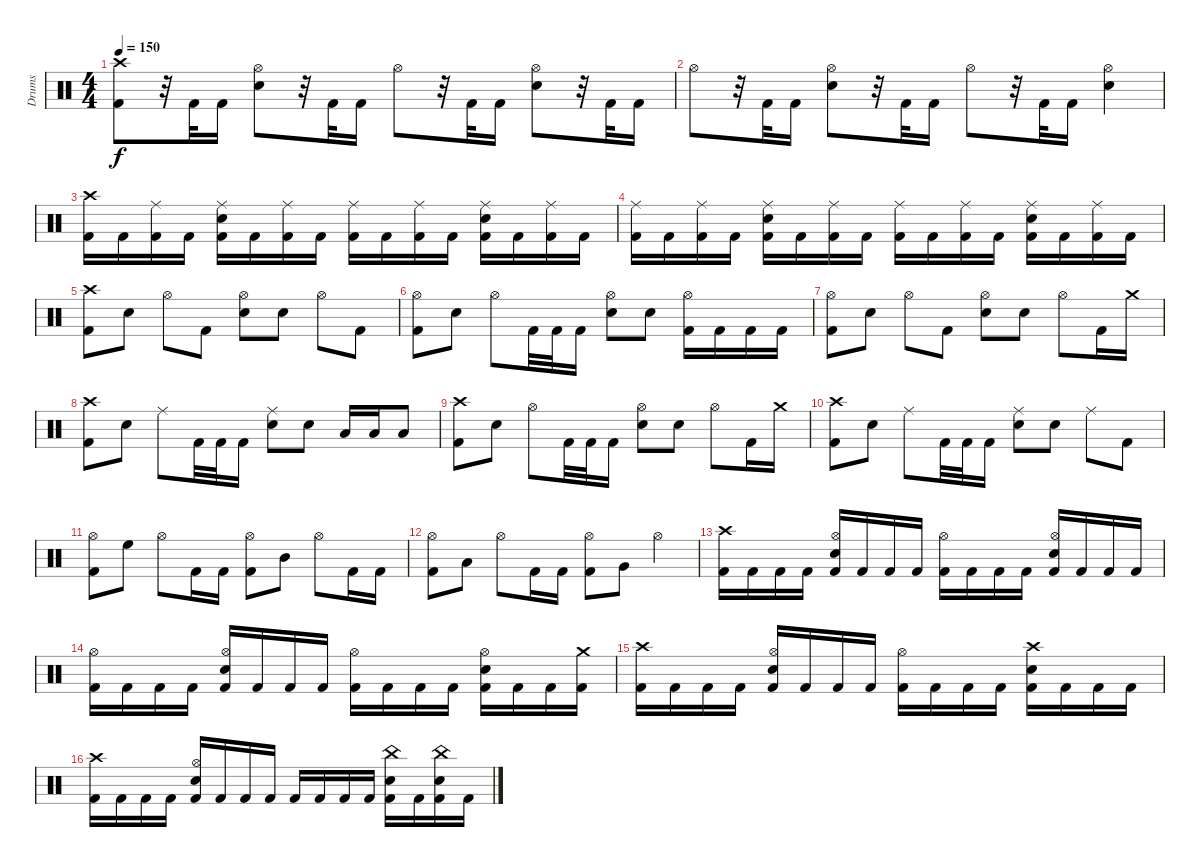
\track ("Drums" "Drums") {instrument percussion}
\staff {score}
\articulation defaults
\ts (4 4)
\tempo 150
\clef neutral
\ks c
("Crash high (hit)" "Kick (hit) 2").8{dy f} r.32 "Kick (hit) 2".32 "Kick (hit) 2".16 ("Hi-Hat (open)" "Snare (hit) 2").8 r.32 "Kick (hit) 2".32 "Kick (hit) 2".16 "Hi-Hat (open)".8 r.32 "Kick (hit) 2".32 "Kick (hit) 2".16 ("Hi-Hat (open)" "Snare (hit) 2").8 r.32 "Kick (hit) 2".32 "Kick (hit) 2".16 |
"Hi-Hat (open)".8 r.32 "Kick (hit) 2".32 "Kick (hit) 2".16 ("Hi-Hat (open)" "Snare (hit) 2").8 r.32 "Kick (hit) 2".32 "Kick (hit) 2".16 "Hi-Hat (open)".8 r.32 "Kick (hit) 2".32 "Kick (hit) 2".16 ("Hi-Hat (open)" "Snare (hit) 2").4 |
("Crash high (hit)" "Kick (hit) 2").16 "Kick (hit) 2".16 ("Ride (middle)" "Kick (hit) 2").16 "Kick (hit) 2".16 ("Ride (middle)" "Snare (hit) 2" "Kick (hit) 2").16 "Kick (hit) 2".16 ("Ride (middle)" "Kick (hit) 2").16 "Kick (hit) 2".16 ("Ride (middle)" "Kick (hit) 2").16 "Kick (hit) 2".16 ("Ride (middle)" "Kick (hit) 2").16 "Kick (hit) 2".16 ("Ride (middle)" "Snare (hit) 2" "Kick (hit) 2").16 "Kick (hit) 2".16 ("Ride (middle)" "Kick (hit) 2").16 "Kick (hit) 2".16 |
("Ride (middle)" "Kick (hit) 2").16 "Kick (hit) 2".16 ("Ride (middle)" "Kick (hit) 2").16 "Kick (hit) 2".16 ("Ride (middle)" "Snare (hit) 2" "Kick (hit) 2").16 "Kick (hit) 2".16 ("Ride (middle)" "Kick (hit) 2").16 "Kick (hit) 2".16 ("Ride (middle)" "Kick (hit) 2").16 "Kick (hit) 2".16 ("Ride (middle)" "Kick (hit) 2").16 "Kick (hit) 2".16 ("Ride (middle)" "Snare (hit) 2" "Kick (hit) 2").16 "Kick (hit) 2".16 ("Ride (middle)" "Kick (hit) 2").16 "Kick (hit) 2".16 |
("Crash high (hit)" "Kick (hit) 2").8 "Snare (hit) 2".8 "Hi-Hat (open)".8 "Kick (hit) 2".8 ("Hi-Hat (open)" "Snare (hit) 2").8 "Snare (hit) 2".8 "Hi-Hat (open)".8 "Kick (hit) 2".8 |
("Hi-Hat (open)" "Kick (hit) 2").8 "Snare (hit) 2".8 "Hi-Hat (open)".8 "Kick (hit) 2".32 "Kick (hit) 2".32 "Kick (hit) 2".16 ("Hi-Hat (open)" "Snare (hit) 2").8 "Snare (hit) 2".8 ("Hi-Hat (open)" "Kick (hit) 2").16 "Kick (hit) 2".16 "Kick (hit) 2".16 "Kick (hit) 2".16 |
("Hi-Hat (open)" "Kick (hit) 2").8 "Snare (hit) 2".8 "Hi-Hat (open)".8 "Kick (hit) 2".8 ("Hi-Hat (open)" "Snare (hit) 2").8 "Snare (hit) 2".8 "Hi-Hat (open)".8 "Kick (hit) 2".16 "Crash medium (hit)".16 |
("Crash high (hit)" "Kick (hit) 2").8 "Snare (hit) 2".8 "Ride (middle)".8 "Kick (hit) 2".32 "Kick (hit) 2".32 "Kick (hit) 2".16 ("Ride (middle)" "Snare (hit) 2").8 "Snare (hit) 2".8 "Low Tom (hit)".16 "Low Tom (hit)".16 "Low Tom (hit)".8 |
("Crash high (hit)" "Kick (hit) 2").8 "Snare (hit) 2".8 "Hi-Hat (open)".8 "Kick (hit) 2".32 "Kick (hit) 2".32 "Kick (hit) 2".16 ("Hi-Hat (open)" "Snare (hit) 2").8 "Snare (hit) 2".8 "Hi-Hat (open)".8 "Kick (hit) 2".16 "Crash medium (hit)".16 |
("Crash high (hit)" "Kick (hit) 2").8 "Snare (hit) 2".8 "Ride (middle)".8 "Kick (hit) 2".32 "Kick (hit) 2".32 "Kick (hit) 2".16 ("Ride (middle)" "Snare (hit) 2").8 "Snare (hit) 2".8 "Ride (middle)".8 "Kick (hit) 2".8 |
("Hi-Hat (open)" "Kick (hit) 2").8 "High Floor Tom (hit)".8 "Hi-Hat (open)".8 "Kick (hit) 2".16 "Kick (hit) 2".16 ("Hi-Hat (open)" "Kick (hit) 2").8 "Mid Tom (hit)".8 "Hi-Hat (open)".8 "Kick (hit) 2".16 "Kick (hit) 2".16 |
("Hi-Hat (open)" "Kick (hit) 2").8 "Low Tom (hit)".8 "Hi-Hat (open)".8 "Kick (hit) 2".16 "Kick (hit) 2".16 ("Hi-Hat (open)" "Kick (hit) 2").8 "Very Low Tom (hit)".8 "Hi-Hat (open)".4 |
("Crash high (hit)" "Kick (hit) 2").16 "Kick (hit) 2".16 "Kick (hit) 2".16 "Kick (hit) 2".16 ("Hi-Hat (open)" "Snare (hit) 2" "Kick (hit) 2").16 "Kick (hit) 2".16 "Kick (hit) 2".16 "Kick (hit) 2".16 ("Hi-Hat (open)" "Kick (hit) 2").16 "Kick (hit) 2".16 "Kick (hit) 2".16 "Kick (hit) 2".16 ("Hi-Hat (open)" "Snare (hit) 2" "Kick (hit) 2").16 "Kick (hit) 2".16 "Kick (hit) 2".16 "Kick (hit) 2".16 |
("Hi-Hat (open)" "Kick (hit) 2").16 "Kick (hit) 2".16 "Kick (hit) 2".16 "Kick (hit) 2".16 ("Hi-Hat (open)" "Snare (hit) 2" "Kick (hit) 2").16 "Kick (hit) 2".16 "Kick (hit) 2".16 "Kick (hit) 2".16 ("Hi-Hat (open)" "Kick (hit) 2").16 "Kick (hit) 2".16 "Kick (hit) 2".16 "Kick (hit) 2".16 ("Hi-Hat (open)" "Snare (hit) 2" "Kick (hit) 2").16 "Kick (hit) 2".16 "Kick (hit) 2".16 ("Crash medium (hit)" "Kick (hit) 2").16 |
("Crash high (hit)" "Kick (hit) 2").16 "Kick (hit) 2".16 "Kick (hit) 2".16 "Kick (hit) 2".16 ("Hi-Hat (open)" "Snare (hit) 2" "Kick (hit) 2").16 "Kick (hit) 2".16 "Kick (hit) 2".16 "Kick (hit) 2".16 ("Hi-Hat (open)" "Kick (hit) 2").16 "Kick (hit) 2".16 "Kick (hit) 2".16 "Kick (hit) 2".16 ("Crash high (hit)" "Snare (hit) 2" "Kick (hit) 2").16 "Kick (hit) 2".16 "Kick (hit) 2".16 "Kick (hit) 2".16 |
("Crash high (hit)" "Kick (hit) 2").16 "Kick (hit) 2".16 "Kick (hit) 2".16 "Kick (hit) 2".16 ("Hi-Hat (open)" "Snare (hit) 2" "Kick (hit) 2").16 "Kick (hit) 2".16 "Kick (hit) 2".16 "Kick (hit) 2".16 "Kick (hit) 2".16 "Kick (hit) 2".16 "Kick (hit) 2".16 "Kick (hit) 2".16 ("China (hit)" "Snare (hit) 2" "Kick (hit) 2").16 "Kick (hit) 2".16 ("China (hit)" "Snare (hit) 2" "Kick (hit) 2").16 "Kick (hit) 2".16
